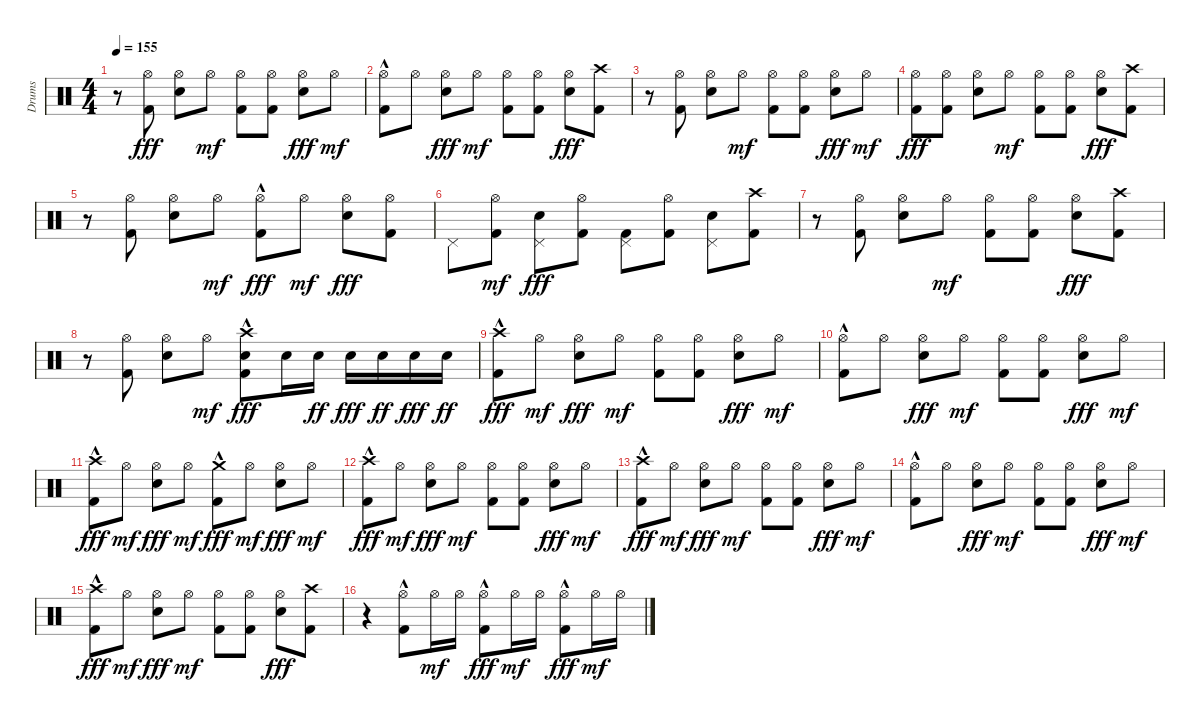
\track ("Drums" "Drums") {instrument percussion}
\staff {score}
\articulation defaults
\ts (4 4)
\tempo 155
\clef neutral
\ks c
r.8{dy fff} ("Hi-Hat (open)" "Kick (hit) 2").8 ("Snare (hit) 2" "Hi-Hat (open)").8 "Hi-Hat (open)".8{dy mf} ("Kick (hit) 2" "Hi-Hat (open)").8 ("Kick (hit) 2" "Hi-Hat (open)").8 ("Snare (hit) 2" "Hi-Hat (open)").8{dy fff} "Hi-Hat (open)".8{dy mf} |
("Kick (hit) 2"{hac} "Hi-Hat (open)").8 "Hi-Hat (open)".8 ("Snare (hit) 2" "Hi-Hat (open)").8{dy fff} "Hi-Hat (open)".8{dy mf} ("Kick (hit) 2" "Hi-Hat (open)").8 ("Kick (hit) 2" "Hi-Hat (open)").8 ("Snare (hit) 2" "Hi-Hat (open)").8{dy fff} ("Crash high (hit)" "Kick (hit) 2").8 |
r.8 ("Hi-Hat (open)" "Kick (hit) 2").8 ("Snare (hit) 2" "Hi-Hat (open)").8 "Hi-Hat (open)".8{dy mf} ("Kick (hit) 2" "Hi-Hat (open)").8 ("Kick (hit) 2" "Hi-Hat (open)").8 ("Snare (hit) 2" "Hi-Hat (open)").8{dy fff} "Hi-Hat (open)".8{dy mf} |
("Hi-Hat (open)" "Kick (hit) 2").8{dy fff} ("Hi-Hat (open)" "Kick (hit) 2").8 ("Snare (hit) 2" "Hi-Hat (open)").8 "Hi-Hat (open)".8{dy mf} ("Kick (hit) 2" "Hi-Hat (open)").8 ("Kick (hit) 2" "Hi-Hat (open)").8 ("Snare (hit) 2" "Hi-Hat (open)").8{dy fff} ("Crash high (hit)" "Kick (hit) 2").8 |
r.8 ("Hi-Hat (open)" "Kick (hit) 2").8 ("Snare (hit) 2" "Hi-Hat (open)").8 "Hi-Hat (open)".8{dy mf} ("Hi-Hat (open)" "Kick (hit) 2"{hac}).8{dy fff} "Hi-Hat (open)".8{dy mf} ("Snare (hit) 2" "Hi-Hat (open)").8{dy fff} ("Hi-Hat (open)" "Kick (hit) 2").8 |
"Pedal Hi-Hat (hit)".8 ("Kick (hit) 2" "Hi-Hat (open)").8{dy mf} ("Snare (hit) 2" "Pedal Hi-Hat (hit)").8{dy fff} ("Hi-Hat (open)" "Kick (hit) 2").8 ("Pedal Hi-Hat (hit)" "Kick (hit) 2").8 ("Hi-Hat (open)" "Kick (hit) 2").8 ("Snare (hit) 2" "Pedal Hi-Hat (hit)").8 ("Crash high (hit)" "Kick (hit) 2").8 |
r.8 ("Hi-Hat (open)" "Kick (hit) 2").8 ("Snare (hit) 2" "Hi-Hat (open)").8 "Hi-Hat (open)".8{dy mf} ("Kick (hit) 2" "Hi-Hat (open)").8 ("Kick (hit) 2" "Hi-Hat (open)").8 ("Snare (hit) 2" "Hi-Hat (open)").8{dy fff} ("Crash high (hit)" "Kick (hit) 2").8 |
r.8 ("Hi-Hat (open)" "Kick (hit) 2").8 ("Snare (hit) 2" "Hi-Hat (open)").8 "Hi-Hat (open)".8{dy mf} ("Kick (hit) 2"{hac} "Snare (hit) 2" "Crash high (hit)").8{dy fff} "Snare (hit) 2".16 "Snare (hit) 2".16{dy ff} "Snare (hit) 2".16{dy fff} "Snare (hit) 2".16{dy ff} "Snare (hit) 2".16{dy fff} "Snare (hit) 2".16{dy ff} |
("Kick (hit) 2"{hac} "Crash high (hit)").8{dy fff} "Hi-Hat (open)".8{dy mf} ("Snare (hit) 2" "Hi-Hat (open)").8{dy fff} "Hi-Hat (open)".8{dy mf} ("Kick (hit) 2" "Hi-Hat (open)").8 ("Kick (hit) 2" "Hi-Hat (open)").8 ("Snare (hit) 2" "Hi-Hat (open)").8{dy fff} "Hi-Hat (open)".8{dy mf} |
("Kick (hit) 2"{hac} "Hi-Hat (open)").8 "Hi-Hat (open)".8 ("Snare (hit) 2" "Hi-Hat (open)").8{dy fff} "Hi-Hat (open)".8{dy mf} ("Kick (hit) 2" "Hi-Hat (open)").8 ("Kick (hit) 2" "Hi-Hat (open)").8 ("Snare (hit) 2" "Hi-Hat (open)").8{dy fff} "Hi-Hat (open)".8{dy mf} |
("Kick (hit) 2"{hac} "Crash high (hit)").8{dy fff} "Hi-Hat (open)".8{dy mf} ("Snare (hit) 2" "Hi-Hat (open)").8{dy fff} "Hi-Hat (open)".8{dy mf} ("Kick (hit) 2"{hac} "Crash medium (hit)").8{dy fff} "Hi-Hat (open)".8{dy mf} ("Snare (hit) 2" "Hi-Hat (open)").8{dy fff} "Hi-Hat (open)".8{dy mf} |
("Kick (hit) 2"{hac} "Crash high (hit)").8{dy fff} "Hi-Hat (open)".8{dy mf} ("Snare (hit) 2" "Hi-Hat (open)").8{dy fff} "Hi-Hat (open)".8{dy mf} ("Kick (hit) 2" "Hi-Hat (open)").8 ("Kick (hit) 2" "Hi-Hat (open)").8 ("Snare (hit) 2" "Hi-Hat (open)").8{dy fff} "Hi-Hat (open)".8{dy mf} |
("Kick (hit) 2"{hac} "Crash high (hit)").8{dy fff} "Hi-Hat (open)".8{dy mf} ("Snare (hit) 2" "Hi-Hat (open)").8{dy fff} "Hi-Hat (open)".8{dy mf} ("Kick (hit) 2" "Hi-Hat (open)").8 ("Kick (hit) 2" "Hi-Hat (open)").8 ("Snare (hit) 2" "Hi-Hat (open)").8{dy fff} "Hi-Hat (open)".8{dy mf} |
("Kick (hit) 2"{hac} "Hi-Hat (open)").8 "Hi-Hat (open)".8 ("Snare (hit) 2" "Hi-Hat (open)").8{dy fff} "Hi-Hat (open)".8{dy mf} ("Kick (hit) 2" "Hi-Hat (open)").8 ("Kick (hit) 2" "Hi-Hat (open)").8 ("Snare (hit) 2" "Hi-Hat (open)").8{dy fff} "Hi-Hat (open)".8{dy mf} |
("Kick (hit) 2"{hac} "Crash high (hit)").8{dy fff} "Hi-Hat (open)".8{dy mf} ("Snare (hit) 2" "Hi-Hat (open)").8{dy fff} "Hi-Hat (open)".8{dy mf} ("Kick (hit) 2" "Hi-Hat (open)").8 ("Kick (hit) 2" "Hi-Hat (open)").8 ("Snare (hit) 2" "Hi-Hat (open)").8{dy fff} ("Crash high (hit)" "Kick (hit) 2").8 |
r.4 ("Kick (hit) 2"{hac} "Hi-Hat (open)").8 "Hi-Hat (open)".16{dy mf} "Hi-Hat (open)".16 ("Kick (hit) 2"{hac} "Hi-Hat (open)").8{dy fff} "Hi-Hat (open)".16{dy mf} "Hi-Hat (open)".16 ("Kick (hit) 2"{hac} "Hi-Hat (open)").8{dy fff} "Hi-Hat (open)".16{dy mf} "Hi-Hat (open)".16
